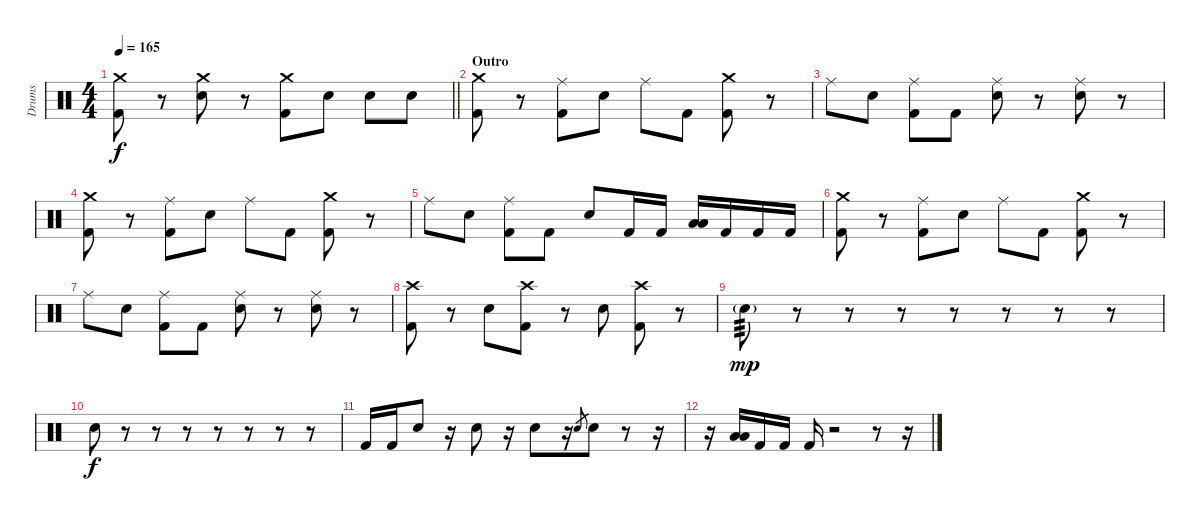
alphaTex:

\track ("Drums" "Drums") {instrument percussion}
\staff {score}
\articulation defaults
\ts (4 4)
\tempo 165
\clef neutral
\barLineRight lightlight
\ks c
("Crash medium (hit)" "Kick (hit) 2").8{dy f} r.8 ("Crash medium (hit)" "Electric Snare (hit)").8 r.8 ("Crash medium (hit)" "Kick (hit) 2").8 "Electric Snare (hit)".8 "Electric Snare (hit)".8 "Electric Snare (hit)".8 |
\section ("" "Outro")
("Crash medium (hit)" "Kick (hit) 2").8 r.8 ("Ride (middle)" "Kick (hit) 2").8 "Electric Snare (hit)".8 "Ride (middle)".8 "Kick (hit) 2".8 ("Crash medium (hit)" "Kick (hit) 2").8 r.8 |
"Ride (middle)".8 "Electric Snare (hit)".8 ("Ride (middle)" "Kick (hit) 2").8 "Kick (hit) 2".8 ("Ride (middle)" "Electric Snare (hit)").8 r.8 ("Ride (middle)" "Electric Snare (hit)").8 r.8 |
("Crash medium (hit)" "Kick (hit) 2").8 r.8 ("Ride (middle)" "Kick (hit) 2").8 "Electric Snare (hit)".8 "Ride (middle)".8 "Kick (hit) 2".8 ("Crash medium (hit)" "Kick (hit) 2").8 r.8 |
"Ride (middle)".8 "Electric Snare (hit)".8 ("Ride (middle)" "Kick (hit) 2").8 "Kick (hit) 2".8 "Electric Snare (hit)".8 "Kick (hit) 2".16 "Kick (hit) 2".16 ("Low Tom (hit)" "Low Tom (hit)").16 "Kick (hit) 2".16 "Kick (hit) 2".16 "Kick (hit) 2".16 |
("Crash medium (hit)" "Kick (hit) 2").8 r.8 ("Ride (middle)" "Kick (hit) 2").8 "Electric Snare (hit)".8 "Ride (middle)".8 "Kick (hit) 2".8 ("Crash medium (hit)" "Kick (hit) 2").8 r.8 |
"Ride (middle)".8 "Electric Snare (hit)".8 ("Ride (middle)" "Kick (hit) 2").8 "Kick (hit) 2".8 ("Ride (middle)" "Electric Snare (hit)").8 r.8 ("Ride (middle)" "Electric Snare (hit)").8 r.8 |
("Crash high (hit)" "Kick (hit) 2").8 r.8 "Electric Snare (hit)".8 ("Kick (hit) 2" "Crash high (hit)").8 r.8 "Electric Snare (hit)".8 ("Crash high (hit)" "Kick (hit) 2").8 r.8 |
"Snare (hit)"{g}.8{tp 3 dy mp} r.8 r.8 r.8 r.8 r.8 r.8 r.8 |
"Snare (hit)".8{dy f} r.8 r.8 r.8 r.8 r.8 r.8 r.8 |
"Kick (hit) 2".16 "Kick (hit) 2".16 "Electric Snare (hit)".8 r.16 "Electric Snare (hit)".8 r.16 "Electric Snare (hit)".8 r.16 "Electric Snare (hit)".8{gr} "Electric Snare (hit)".8 r.8 r.16 |
r.16 ("Low Tom (hit)" "Low Tom (hit)").16 "Kick (hit) 2".16 "Kick (hit) 2".16 "Kick (hit) 2".16 r.2 r.8 r.16
